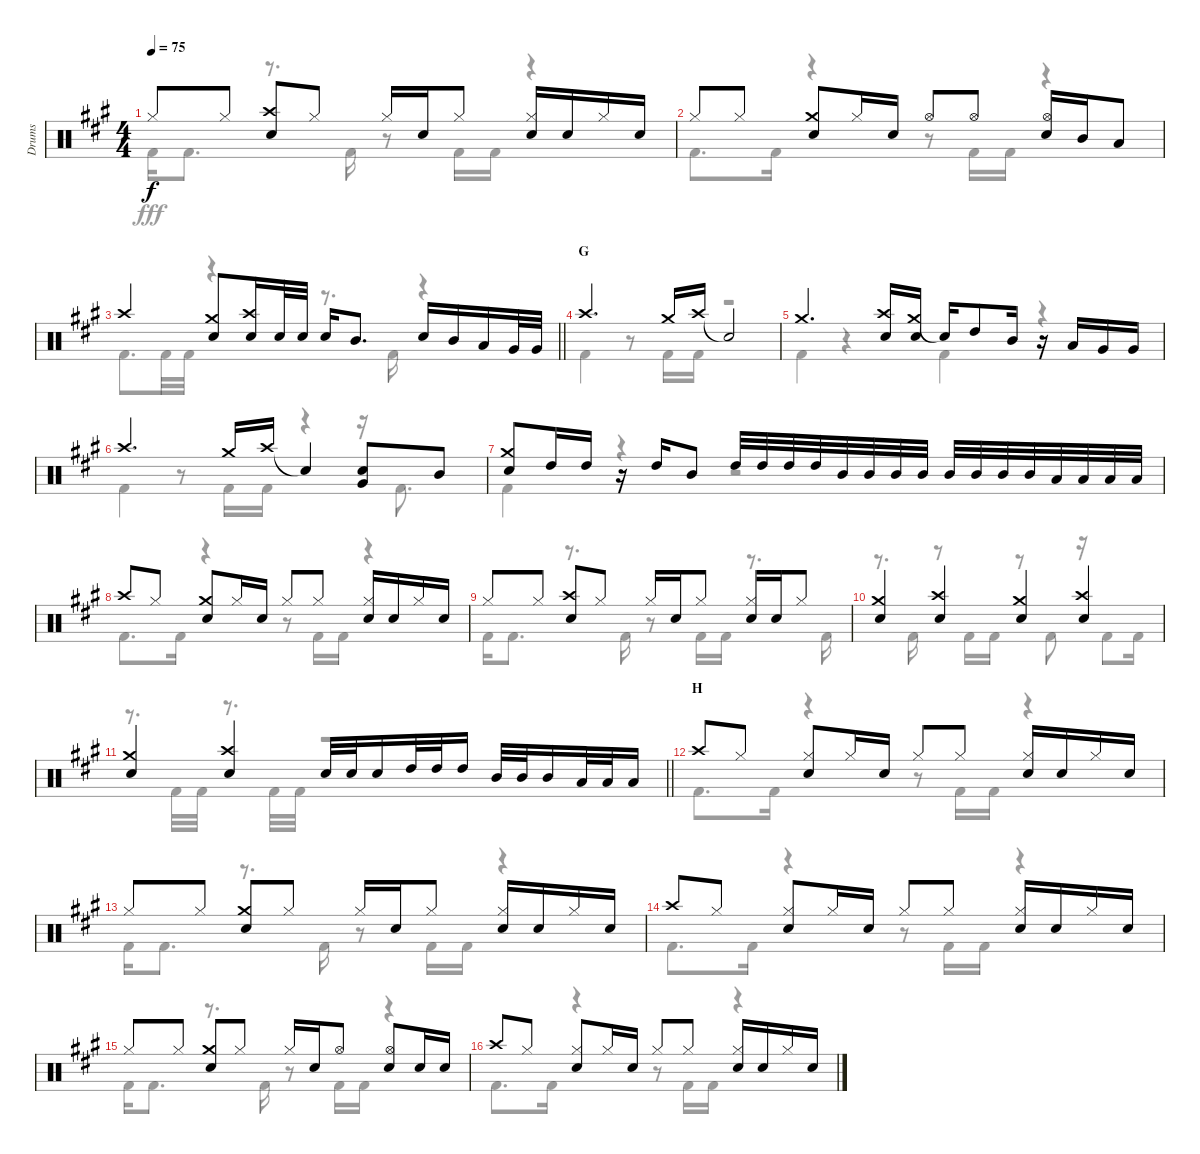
\track ("Drums" "Drums") {instrument percussion}
\staff {score}
\articulation defaults
\voice
\ts (4 4)
\tempo 75
\clef neutral
\ks a "Hi-Hat (closed)".8{dy f} "Hi-Hat (closed)".8
("Crash high (hit)" "Snare (hit) 2").8 "Hi-Hat (closed)".8 "Hi-Hat (closed)".16 "Snare (hit) 2".16 "Hi-Hat (closed)".8 ("Hi-Hat (closed)" "Snare (hit) 2").16 "Snare (hit) 2".16 "Hi-Hat (closed)".16 "Snare (hit) 2".16 |
"Hi-Hat (closed)".8 "Hi-Hat (closed)".8 ("Crash medium (hit)" "Snare (hit) 2").8 "Hi-Hat (closed)".16 "Snare (hit) 2".16 "Hi-Hat (open)".8 "Hi-Hat (open)".8 ("Hi-Hat (open)" "Snare (hit) 2").16 "Mid Tom (hit)".16 "Low Tom (hit)".8 |
\barLineRight lightlight "Crash high (hit)".4
("Crash medium (hit)" "Snare (hit) 2").8 ("Crash high (hit)" "Snare (hit) 2").16 "Snare (hit) 2".32 "Snare (hit) 2".32 "Snare (hit) 2".16 "Mid Tom (hit)".8{d} "Snare (hit) 2".16 "Mid Tom (hit)".16 "Low Tom (hit)".16 "Very Low Tom (hit)".32 "Very Low Tom (hit)".32 |
\section ("" "G")
"Crash high (hit)".4{d} "Crash medium (hit)".16 "Crash high (hit)".16 "Snare (hit)"{t}.2 |
"Crash medium (hit)".4{d} ("Crash high (hit)" "Snare (hit) 2").16 ("Crash medium (hit)" "Snare (hit) 2").16 "Snare (hit)"{t}.16 "High Tom (hit)".8 "Mid Tom (hit)".16 r.16 "Low Tom (hit)".16 "Very Low Tom (hit)".16 "Very Low Tom (hit)".16 |
"Crash high (hit)".4{d} "Crash medium (hit)".16 "Crash high (hit)".16 "Snare (hit)"{t}.4 ("Snare (hit) 2" "Very Low Tom (hit)").8 "Mid Tom (hit)".8 |
("Crash medium (hit)" "Snare (hit) 2").8 "High Tom (hit)".16 "High Tom (hit)".16 r.16 "High Tom (hit)".16 "Mid Tom (hit)".8 "High Tom (hit)".32 "High Tom (hit)".32 "High Tom (hit)".32 "High Tom (hit)".32 "Mid Tom (hit)".32 "Mid Tom (hit)".32 "Mid Tom (hit)".32 "Mid Tom (hit)".32 "Mid Tom (hit)".32 "Mid Tom (hit)".32 "Mid Tom (hit)".32 "Mid Tom (hit)".32 "Low Tom (hit)".32 "Low Tom (hit)".32 "Low Tom (hit)".32 "Low Tom (hit)".32 |
"Crash high (hit)".8 "Hi-Hat (closed)".8 ("Crash medium (hit)" "Snare (hit) 2").8 "Hi-Hat (closed)".16 "Snare (hit) 2".16 "Hi-Hat (closed)".8 "Hi-Hat (closed)".8 ("Hi-Hat (closed)" "Snare (hit) 2").16 "Snare (hit) 2".16 "Hi-Hat (closed)".16 "Snare (hit) 2".16 |
"Hi-Hat (closed)".8 "Hi-Hat (closed)".8 ("Crash high (hit)" "Snare (hit) 2").8 "Hi-Hat (closed)".8 "Hi-Hat (closed)".16 "Snare (hit) 2".16 "Hi-Hat (closed)".8 ("Hi-Hat (closed)" "Snare (hit) 2").16 "Snare (hit) 2".16 "Hi-Hat (closed)".8 |
("Crash medium (hit)" "Snare (hit) 2").4 ("Crash high (hit)" "Snare (hit) 2").4 ("Crash medium (hit)" "Snare (hit) 2").4 ("Crash high (hit)" "Snare (hit) 2").4 |
\barLineRight lightlight
("Crash medium (hit)" "Snare (hit) 2").4 ("Crash high (hit)" "Snare (hit) 2").4 "Snare (hit) 2".32 "Snare (hit) 2".32 "Snare (hit) 2".16 "High Tom (hit)".32 "High Tom (hit)".32 "High Tom (hit)".16 "Mid Tom (hit)".32 "Mid Tom (hit)".32 "Mid Tom (hit)".16 "Low Tom (hit)".32 "Low Tom (hit)".32 "Low Tom (hit)".16 |
\section ("" "H")
"Crash high (hit)".8 "Hi-Hat (closed)".8 ("Hi-Hat (closed)" "Snare (hit) 2").8 "Hi-Hat (closed)".16 "Snare (hit) 2".16 "Hi-Hat (closed)".8 "Hi-Hat (closed)".8 ("Hi-Hat (closed)" "Snare (hit) 2").16 "Snare (hit) 2".16 "Hi-Hat (closed)".16 "Snare (hit) 2".16 |
"Hi-Hat (closed)".8 "Hi-Hat (closed)".8 ("Crash medium (hit)" "Snare (hit) 2").8 "Hi-Hat (closed)".8 "Hi-Hat (closed)".16 "Snare (hit) 2".16 "Hi-Hat (closed)".8 ("Hi-Hat (closed)" "Snare (hit) 2").16 "Snare (hit) 2".16 "Hi-Hat (closed)".16 "Snare (hit) 2".16 |
"Crash high (hit)".8 "Hi-Hat (closed)".8 ("Hi-Hat (closed)" "Snare (hit) 2").8 "Hi-Hat (closed)".16 "Snare (hit) 2".16 "Hi-Hat (closed)".8 "Hi-Hat (closed)".8 ("Hi-Hat (closed)" "Snare (hit) 2").16 "Snare (hit) 2".16 "Hi-Hat (closed)".16 "Snare (hit) 2".16 |
"Hi-Hat (closed)".8 "Hi-Hat (closed)".8 ("Crash medium (hit)" "Snare (hit) 2").8 "Hi-Hat (closed)".8 "Hi-Hat (closed)".16 "Snare (hit) 2".16 "Hi-Hat (open)".8 ("Hi-Hat (open)" "Snare (hit) 2").8 "Snare (hit) 2".16 "Snare (hit) 2".16 |
"Crash high (hit)".8 "Hi-Hat (closed)".8 ("Hi-Hat (closed)" "Snare (hit) 2").8 "Hi-Hat (closed)".16 "Snare (hit) 2".16 "Hi-Hat (closed)".8 "Hi-Hat (closed)".8 ("Hi-Hat (closed)" "Snare (hit) 2").16 "Snare (hit) 2".16 "Hi-Hat (closed)".16 "Snare (hit) 2".16
\voice
\clef neutral
\ottava regular
\simile none
\ks a "Kick (hit) 2".16{dy fff} "Kick (hit) 2".8{d}
r.8{d} "Kick (hit) 2".16 r.8 "Kick (hit) 2".16 "Kick (hit) 2".16 r.4 |
"Kick (hit) 2".8{d} "Kick (hit) 2".16 r.4 r.8 "Kick (hit) 2".16 "Kick (hit) 2".16 r.4 |
\barLineRight lightlight "Kick (hit) 2".8{d} "Kick (hit) 2".32 "Kick (hit) 2".32
r.4 r.8{d} "Kick (hit) 2".16 r.4 |
"Kick (hit) 2".4 r.8 "Kick (hit) 2".16 "Kick (hit) 2".16 r.2 |
"Kick (hit) 2".4 r.4 "Kick (hit) 2".4 r.4 |
"Kick (hit) 2".4 r.8 "Kick (hit) 2".16 "Kick (hit) 2".16 r.4 r.16 "Kick (hit) 2".8{d} |
"Kick (hit) 2".4 r.4 r.2 |
"Kick (hit) 2".8{d} "Kick (hit) 2".16 r.4 r.8 "Kick (hit) 2".16 "Kick (hit) 2".16 r.4 |
"Kick (hit) 2".16 "Kick (hit) 2".8{d} r.8{d} "Kick (hit) 2".16 r.8 "Kick (hit) 2".16 "Kick (hit) 2".16 r.8{d} "Kick (hit) 2".16 |
r.8{d} "Kick (hit) 2".16 r.8 "Kick (hit) 2".16 "Kick (hit) 2".16 r.8 "Kick (hit) 2".8 r.16 "Kick (hit) 2".8 "Kick (hit) 2".16 |
\barLineRight lightlight
r.8{d} "Kick (hit) 2".32 "Kick (hit) 2".32 r.8{d} "Kick (hit) 2".32 "Kick (hit) 2".32 r.2 |
"Kick (hit) 2".8{d} "Kick (hit) 2".16 r.4 r.8 "Kick (hit) 2".16 "Kick (hit) 2".16 r.4 |
"Kick (hit) 2".16 "Kick (hit) 2".8{d} r.8{d} "Kick (hit) 2".16 r.8 "Kick (hit) 2".16 "Kick (hit) 2".16 r.4 |
"Kick (hit) 2".8{d} "Kick (hit) 2".16 r.4 r.8 "Kick (hit) 2".16 "Kick (hit) 2".16 r.4 |
"Kick (hit) 2".16 "Kick (hit) 2".8{d} r.8{d} "Kick (hit) 2".16 r.8 "Kick (hit) 2".16 "Kick (hit) 2".16 r.4 |
"Kick (hit) 2".8{d} "Kick (hit) 2".16 r.4 r.8 "Kick (hit) 2".16 "Kick (hit) 2".16 r.4
